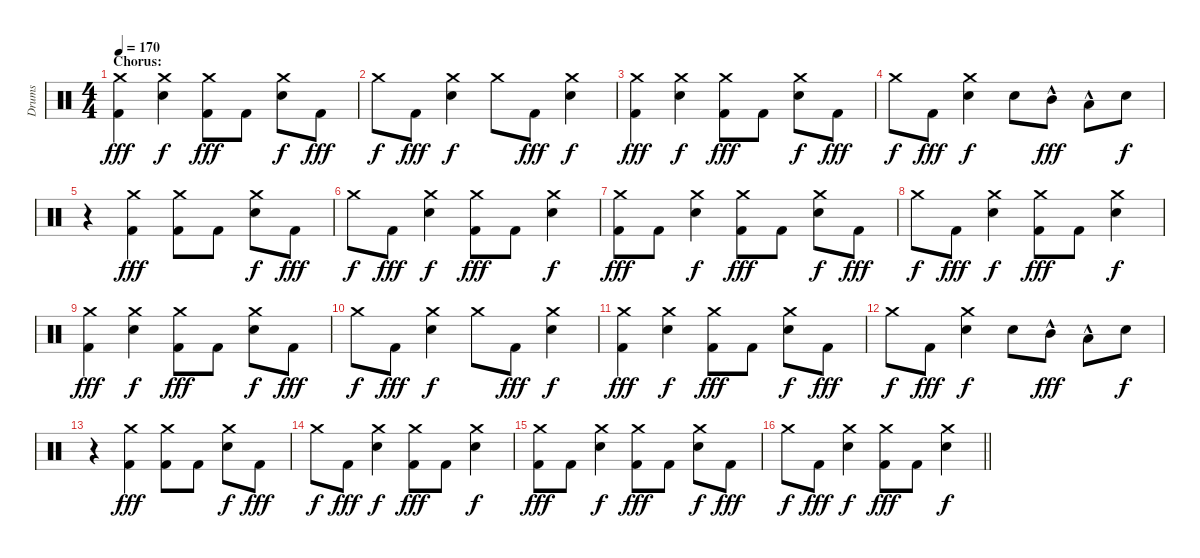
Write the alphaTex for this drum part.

\track ("Drums" "Drums") {instrument percussion}
\staff {score}
\articulation defaults
\ts (4 4)
\section ("" "Chorus:")
\tempo 170
\clef neutral
\ks c
("Crash medium (hit)" "Kick (hit) 2").4{dy fff} ("Crash medium (hit)" "Electric Snare (hit)").4{dy f} ("Crash medium (hit)" "Kick (hit) 2").8{dy fff} "Kick (hit) 2".8 ("Crash medium (hit)" "Electric Snare (hit)").8{dy f} "Kick (hit) 2".8{dy fff} |
"Crash medium (hit)".8{dy f} "Kick (hit) 2".8{dy fff} ("Crash medium (hit)" "Electric Snare (hit)").4{dy f} "Crash medium (hit)".8 "Kick (hit) 2".8{dy fff} ("Crash medium (hit)" "Electric Snare (hit)").4{dy f} |
("Crash medium (hit)" "Kick (hit) 2").4{dy fff} ("Crash medium (hit)" "Electric Snare (hit)").4{dy f} ("Crash medium (hit)" "Kick (hit) 2").8{dy fff} "Kick (hit) 2".8 ("Crash medium (hit)" "Electric Snare (hit)").8{dy f} "Kick (hit) 2".8{dy fff} |
"Crash medium (hit)".8{dy f} "Kick (hit) 2".8{dy fff} ("Crash medium (hit)" "Electric Snare (hit)").4{dy f} "Electric Snare (hit)".8 "Mid Tom (hit)"{hac}.8{dy fff} "Low Tom (hit)"{hac}.8 "Electric Snare (hit)".8{dy f} |
r.4 ("Crash medium (hit)" "Kick (hit) 2").4{dy fff} ("Crash medium (hit)" "Kick (hit) 2").8 "Kick (hit) 2".8 ("Crash medium (hit)" "Electric Snare (hit)").8{dy f} "Kick (hit) 2".8{dy fff} |
"Crash medium (hit)".8{dy f} "Kick (hit) 2".8{dy fff} ("Crash medium (hit)" "Electric Snare (hit)").4{dy f} ("Crash medium (hit)" "Kick (hit) 2").8{dy fff} "Kick (hit) 2".8 ("Crash medium (hit)" "Electric Snare (hit)").4{dy f} |
("Crash medium (hit)" "Kick (hit) 2").8{dy fff} "Kick (hit) 2".8 ("Crash medium (hit)" "Electric Snare (hit)").4{dy f} ("Crash medium (hit)" "Kick (hit) 2").8{dy fff} "Kick (hit) 2".8 ("Crash medium (hit)" "Electric Snare (hit)").8{dy f} "Kick (hit) 2".8{dy fff} |
"Crash medium (hit)".8{dy f} "Kick (hit) 2".8{dy fff} ("Crash medium (hit)" "Electric Snare (hit)").4{dy f} ("Crash medium (hit)" "Kick (hit) 2").8{dy fff} "Kick (hit) 2".8 ("Crash medium (hit)" "Electric Snare (hit)").4{dy f} |
("Crash medium (hit)" "Kick (hit) 2").4{dy fff} ("Crash medium (hit)" "Electric Snare (hit)").4{dy f} ("Crash medium (hit)" "Kick (hit) 2").8{dy fff} "Kick (hit) 2".8 ("Crash medium (hit)" "Electric Snare (hit)").8{dy f} "Kick (hit) 2".8{dy fff} |
"Crash medium (hit)".8{dy f} "Kick (hit) 2".8{dy fff} ("Crash medium (hit)" "Electric Snare (hit)").4{dy f} "Crash medium (hit)".8 "Kick (hit) 2".8{dy fff} ("Crash medium (hit)" "Electric Snare (hit)").4{dy f} |
("Crash medium (hit)" "Kick (hit) 2").4{dy fff} ("Crash medium (hit)" "Electric Snare (hit)").4{dy f} ("Crash medium (hit)" "Kick (hit) 2").8{dy fff} "Kick (hit) 2".8 ("Crash medium (hit)" "Electric Snare (hit)").8{dy f} "Kick (hit) 2".8{dy fff} |
"Crash medium (hit)".8{dy f} "Kick (hit) 2".8{dy fff} ("Crash medium (hit)" "Electric Snare (hit)").4{dy f} "Electric Snare (hit)".8 "Mid Tom (hit)"{hac}.8{dy fff} "Low Tom (hit)"{hac}.8 "Electric Snare (hit)".8{dy f} |
r.4 ("Crash medium (hit)" "Kick (hit) 2").4{dy fff} ("Crash medium (hit)" "Kick (hit) 2").8 "Kick (hit) 2".8 ("Crash medium (hit)" "Electric Snare (hit)").8{dy f} "Kick (hit) 2".8{dy fff} |
"Crash medium (hit)".8{dy f} "Kick (hit) 2".8{dy fff} ("Crash medium (hit)" "Electric Snare (hit)").4{dy f} ("Crash medium (hit)" "Kick (hit) 2").8{dy fff} "Kick (hit) 2".8 ("Crash medium (hit)" "Electric Snare (hit)").4{dy f} |
("Crash medium (hit)" "Kick (hit) 2").8{dy fff} "Kick (hit) 2".8 ("Crash medium (hit)" "Electric Snare (hit)").4{dy f} ("Crash medium (hit)" "Kick (hit) 2").8{dy fff} "Kick (hit) 2".8 ("Crash medium (hit)" "Electric Snare (hit)").8{dy f} "Kick (hit) 2".8{dy fff} |
\barLineRight lightlight "Crash medium (hit)".8{dy f} "Kick (hit) 2".8{dy fff}
("Crash medium (hit)" "Electric Snare (hit)").4{dy f} ("Crash medium (hit)" "Kick (hit) 2").8{dy fff} "Kick (hit) 2".8 ("Crash medium (hit)" "Electric Snare (hit)").4{dy f}
